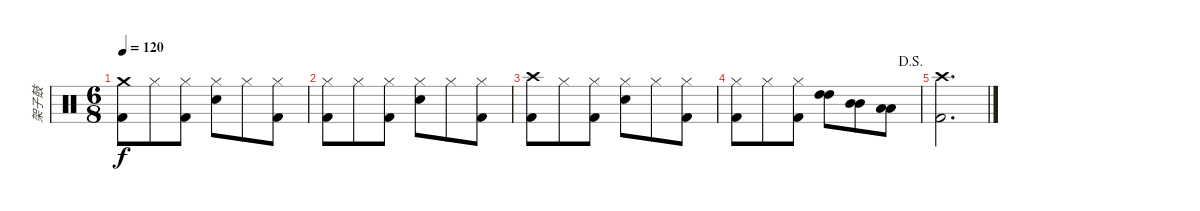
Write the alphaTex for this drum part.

\track ("架子鼓" "架子鼓") {instrument percussion}
\staff {score}
\articulation defaults
\ts (6 8)
\tempo 120
\clef neutral
\ks c
("Crash medium (hit)" "Kick (hit) 2").8{dy f} "Hi-Hat (closed)".8 ("Hi-Hat (closed)" "Kick (hit) 2").8 ("Hi-Hat (closed)" "Electric Snare (hit)").8 "Hi-Hat (closed)".8 ("Hi-Hat (closed)" "Kick (hit) 2").8 |
("Hi-Hat (closed)" "Kick (hit) 2").8 "Hi-Hat (closed)".8 ("Hi-Hat (closed)" "Kick (hit) 2").8 ("Hi-Hat (closed)" "Electric Snare (hit)").8 "Hi-Hat (closed)".8 ("Hi-Hat (closed)" "Kick (hit) 2").8 |
("Crash high (hit)" "Kick (hit) 2").8 "Hi-Hat (closed)".8 ("Hi-Hat (closed)" "Kick (hit) 2").8 ("Hi-Hat (closed)" "Electric Snare (hit)").8 "Hi-Hat (closed)".8 ("Hi-Hat (closed)" "Kick (hit) 2").8 |
\jump dalsegno
("Hi-Hat (closed)" "Kick (hit) 2").8 "Hi-Hat (closed)".8 ("Hi-Hat (closed)" "Kick (hit) 2").8 ("High Tom (hit)" "High Tom (hit)").8 ("Mid Tom (hit)" "Mid Tom (hit)").8 ("Low Tom (hit)" "Low Tom (hit)").8 |
("Crash high (hit)" "Kick (hit) 2").2{d}
